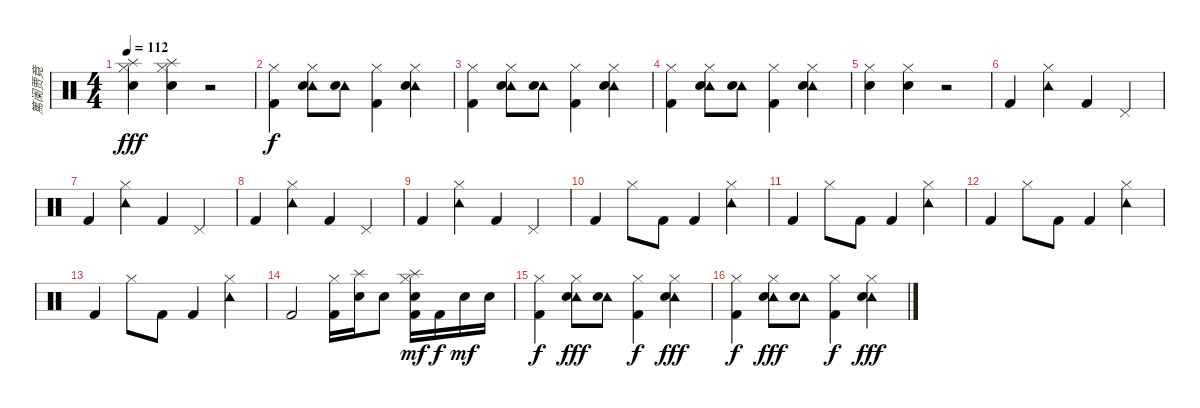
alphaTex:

\track ("篤阑贾竟" "篤阑贾竟") {instrument percussion}
\staff {score}
\articulation defaults
\ts (4 4)
\tempo 112
\clef neutral
\ks c
("Hi-Hat (closed)" "Splash (hit)" "Electric Snare (hit)").4{dy fff} ("Hi-Hat (closed)" "Splash (hit)" "Electric Snare (hit)").4 r.2 |
("Hi-Hat (closed)" "Kick (hit) 2").4{dy f} ("Hi-Hat (closed)" "Tambourine (hit)" "Electric Snare (hit)").8 ("Tambourine (hit)" "Electric Snare (hit)").8 ("Hi-Hat (closed)" "Kick (hit) 2").4 ("Hi-Hat (closed)" "Tambourine (hit)" "Electric Snare (hit)").4 |
("Hi-Hat (closed)" "Kick (hit) 2").4 ("Hi-Hat (closed)" "Tambourine (hit)" "Electric Snare (hit)").8 ("Tambourine (hit)" "Electric Snare (hit)").8 ("Hi-Hat (closed)" "Kick (hit) 2").4 ("Hi-Hat (closed)" "Tambourine (hit)" "Electric Snare (hit)").4 |
("Hi-Hat (closed)" "Kick (hit) 2").4 ("Hi-Hat (closed)" "Tambourine (hit)" "Electric Snare (hit)").8 ("Tambourine (hit)" "Electric Snare (hit)").8 ("Hi-Hat (closed)" "Kick (hit) 2").4 ("Hi-Hat (closed)" "Tambourine (hit)" "Electric Snare (hit)").4 |
("Hi-Hat (closed)" "Electric Snare (hit)").4 ("Hi-Hat (closed)" "Electric Snare (hit)").4 r.2 |
"Kick (hit) 2".4 ("Hi-Hat (closed)" "Tambourine (hit)").4 "Kick (hit) 2".4 "Pedal Hi-Hat (hit)".4 |
"Kick (hit) 2".4 ("Hi-Hat (closed)" "Tambourine (hit)").4 "Kick (hit) 2".4 "Pedal Hi-Hat (hit)".4 |
"Kick (hit) 2".4 ("Hi-Hat (closed)" "Tambourine (hit)").4 "Kick (hit) 2".4 "Pedal Hi-Hat (hit)".4 |
"Kick (hit) 2".4 ("Hi-Hat (closed)" "Tambourine (hit)").4 "Kick (hit) 2".4 "Pedal Hi-Hat (hit)".4 |
"Kick (hit) 2".4 "Hi-Hat (closed)".8 "Kick (hit) 2".8 "Kick (hit) 2".4 ("Hi-Hat (closed)" "Tambourine (hit)").4 |
"Kick (hit) 2".4 "Hi-Hat (closed)".8 "Kick (hit) 2".8 "Kick (hit) 2".4 ("Hi-Hat (closed)" "Tambourine (hit)").4 |
"Kick (hit) 2".4 "Hi-Hat (closed)".8 "Kick (hit) 2".8 "Kick (hit) 2".4 ("Hi-Hat (closed)" "Tambourine (hit)").4 |
"Kick (hit) 2".4 "Hi-Hat (closed)".8 "Kick (hit) 2".8 "Kick (hit) 2".4 ("Hi-Hat (closed)" "Tambourine (hit)").4 |
"Kick (hit) 2".2 ("Hi-Hat (closed)" "Kick (hit) 2").16 ("Splash (hit)" "Electric Snare (hit)").16 "Electric Snare (hit)".8 ("Hi-Hat (closed)" "Splash (hit)" "Electric Snare (hit)" "Kick (hit) 2").16{dy mf} "Kick (hit) 2".16{dy f} "Electric Snare (hit)".16{dy mf} "Electric Snare (hit)".16 |
("Hi-Hat (closed)" "Kick (hit) 2").4{dy f} ("Hi-Hat (closed)" "Tambourine (hit)" "Electric Snare (hit)").8{dy fff} ("Tambourine (hit)" "Electric Snare (hit)").8 ("Hi-Hat (closed)" "Kick (hit) 2").4{dy f} ("Hi-Hat (closed)" "Tambourine (hit)" "Electric Snare (hit)").4{dy fff} |
("Hi-Hat (closed)" "Kick (hit) 2").4{dy f} ("Hi-Hat (closed)" "Tambourine (hit)" "Electric Snare (hit)").8{dy fff} ("Tambourine (hit)" "Electric Snare (hit)").8 ("Hi-Hat (closed)" "Kick (hit) 2").4{dy f} ("Hi-Hat (closed)" "Tambourine (hit)" "Electric Snare (hit)").4{dy fff}
